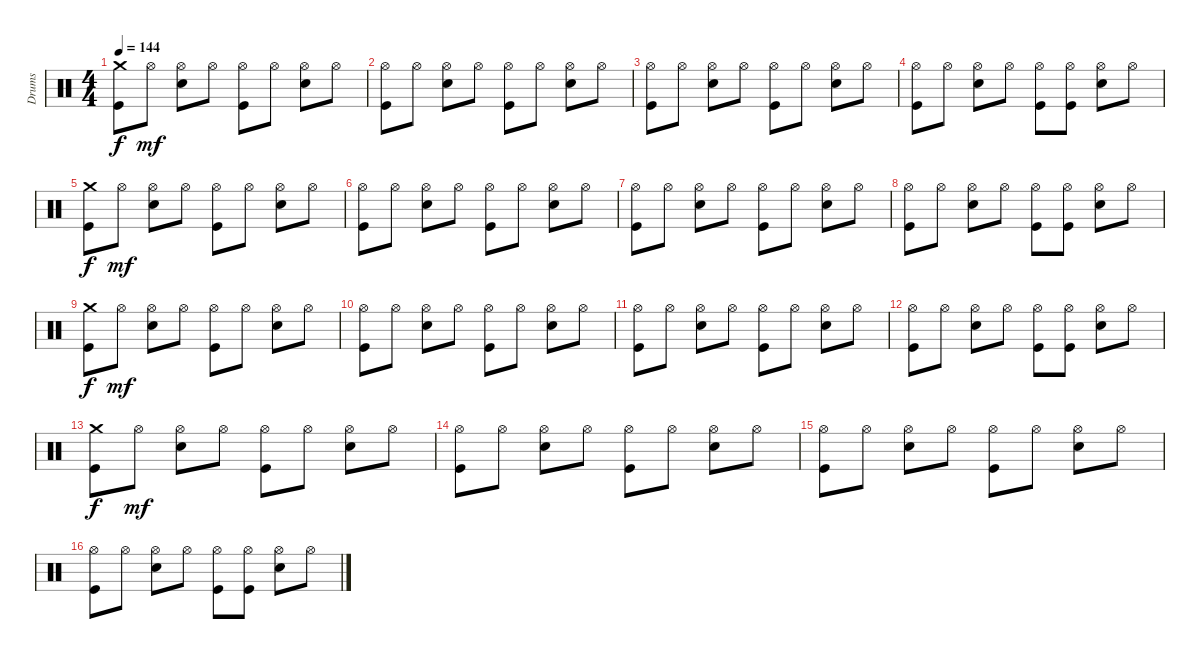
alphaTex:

\track ("Drums" "Drums") {instrument percussion}
\staff {score}
\articulation defaults
\ts (4 4)
\tempo 144
\clef neutral
\ks c
("Crash medium (hit)" "Kick (hit)").8{dy f} "Hi-Hat (open)".8{dy mf} ("Hi-Hat (open)" "Snare (hit) 2").8 "Hi-Hat (open)".8 ("Hi-Hat (open)" "Kick (hit)").8 "Hi-Hat (open)".8 ("Hi-Hat (open)" "Snare (hit) 2").8 "Hi-Hat (open)".8 |
("Hi-Hat (open)" "Kick (hit)").8 "Hi-Hat (open)".8 ("Hi-Hat (open)" "Snare (hit) 2").8 "Hi-Hat (open)".8 ("Hi-Hat (open)" "Kick (hit)").8 "Hi-Hat (open)".8 ("Hi-Hat (open)" "Snare (hit) 2").8 "Hi-Hat (open)".8 |
("Hi-Hat (open)" "Kick (hit)").8 "Hi-Hat (open)".8 ("Hi-Hat (open)" "Snare (hit) 2").8 "Hi-Hat (open)".8 ("Hi-Hat (open)" "Kick (hit)").8 "Hi-Hat (open)".8 ("Hi-Hat (open)" "Snare (hit) 2").8 "Hi-Hat (open)".8 |
("Hi-Hat (open)" "Kick (hit)").8 "Hi-Hat (open)".8 ("Hi-Hat (open)" "Snare (hit) 2").8 "Hi-Hat (open)".8 ("Hi-Hat (open)" "Kick (hit)").8 ("Hi-Hat (open)" "Kick (hit)").8 ("Hi-Hat (open)" "Snare (hit) 2").8 "Hi-Hat (open)".8 |
("Crash medium (hit)" "Kick (hit)").8{dy f} "Hi-Hat (open)".8{dy mf} ("Hi-Hat (open)" "Snare (hit) 2").8 "Hi-Hat (open)".8 ("Hi-Hat (open)" "Kick (hit)").8 "Hi-Hat (open)".8 ("Hi-Hat (open)" "Snare (hit) 2").8 "Hi-Hat (open)".8 |
("Hi-Hat (open)" "Kick (hit)").8 "Hi-Hat (open)".8 ("Hi-Hat (open)" "Snare (hit) 2").8 "Hi-Hat (open)".8 ("Hi-Hat (open)" "Kick (hit)").8 "Hi-Hat (open)".8 ("Hi-Hat (open)" "Snare (hit) 2").8 "Hi-Hat (open)".8 |
("Hi-Hat (open)" "Kick (hit)").8 "Hi-Hat (open)".8 ("Hi-Hat (open)" "Snare (hit) 2").8 "Hi-Hat (open)".8 ("Hi-Hat (open)" "Kick (hit)").8 "Hi-Hat (open)".8 ("Hi-Hat (open)" "Snare (hit) 2").8 "Hi-Hat (open)".8 |
("Hi-Hat (open)" "Kick (hit)").8 "Hi-Hat (open)".8 ("Hi-Hat (open)" "Snare (hit) 2").8 "Hi-Hat (open)".8 ("Hi-Hat (open)" "Kick (hit)").8 ("Hi-Hat (open)" "Kick (hit)").8 ("Hi-Hat (open)" "Snare (hit) 2").8 "Hi-Hat (open)".8 |
("Crash medium (hit)" "Kick (hit)").8{dy f} "Hi-Hat (open)".8{dy mf} ("Hi-Hat (open)" "Snare (hit) 2").8 "Hi-Hat (open)".8 ("Hi-Hat (open)" "Kick (hit)").8 "Hi-Hat (open)".8 ("Hi-Hat (open)" "Snare (hit) 2").8 "Hi-Hat (open)".8 |
("Hi-Hat (open)" "Kick (hit)").8 "Hi-Hat (open)".8 ("Hi-Hat (open)" "Snare (hit) 2").8 "Hi-Hat (open)".8 ("Hi-Hat (open)" "Kick (hit)").8 "Hi-Hat (open)".8 ("Hi-Hat (open)" "Snare (hit) 2").8 "Hi-Hat (open)".8 |
("Hi-Hat (open)" "Kick (hit)").8 "Hi-Hat (open)".8 ("Hi-Hat (open)" "Snare (hit) 2").8 "Hi-Hat (open)".8 ("Hi-Hat (open)" "Kick (hit)").8 "Hi-Hat (open)".8 ("Hi-Hat (open)" "Snare (hit) 2").8 "Hi-Hat (open)".8 |
("Hi-Hat (open)" "Kick (hit)").8 "Hi-Hat (open)".8 ("Hi-Hat (open)" "Snare (hit) 2").8 "Hi-Hat (open)".8 ("Hi-Hat (open)" "Kick (hit)").8 ("Hi-Hat (open)" "Kick (hit)").8 ("Hi-Hat (open)" "Snare (hit) 2").8 "Hi-Hat (open)".8 |
("Crash medium (hit)" "Kick (hit)").8{dy f} "Hi-Hat (open)".8{dy mf} ("Hi-Hat (open)" "Snare (hit) 2").8 "Hi-Hat (open)".8 ("Hi-Hat (open)" "Kick (hit)").8 "Hi-Hat (open)".8 ("Hi-Hat (open)" "Snare (hit) 2").8 "Hi-Hat (open)".8 |
("Hi-Hat (open)" "Kick (hit)").8 "Hi-Hat (open)".8 ("Hi-Hat (open)" "Snare (hit) 2").8 "Hi-Hat (open)".8 ("Hi-Hat (open)" "Kick (hit)").8 "Hi-Hat (open)".8 ("Hi-Hat (open)" "Snare (hit) 2").8 "Hi-Hat (open)".8 |
("Hi-Hat (open)" "Kick (hit)").8 "Hi-Hat (open)".8 ("Hi-Hat (open)" "Snare (hit) 2").8 "Hi-Hat (open)".8 ("Hi-Hat (open)" "Kick (hit)").8 "Hi-Hat (open)".8 ("Hi-Hat (open)" "Snare (hit) 2").8 "Hi-Hat (open)".8 |
("Hi-Hat (open)" "Kick (hit)").8 "Hi-Hat (open)".8 ("Hi-Hat (open)" "Snare (hit) 2").8 "Hi-Hat (open)".8 ("Hi-Hat (open)" "Kick (hit)").8 ("Hi-Hat (open)" "Kick (hit)").8 ("Hi-Hat (open)" "Snare (hit) 2").8 "Hi-Hat (open)".8
